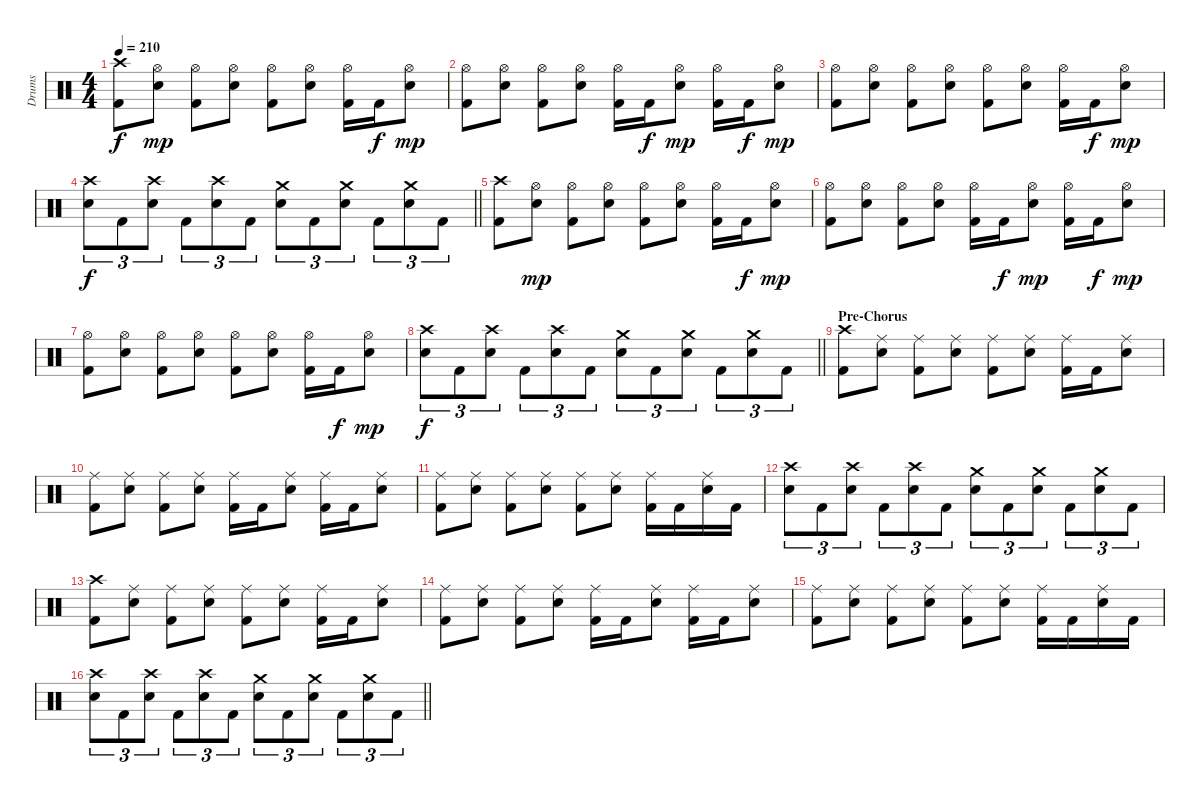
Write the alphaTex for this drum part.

\track ("Drums" "Drums") {instrument percussion}
\staff {score}
\articulation defaults
\ts (4 4)
\tempo 210
\clef neutral
\ks c
("Crash high (hit)" "Kick (hit) 2").8{dy f} ("Hi-Hat (open)" "Snare (hit) 2").8{dy mp} ("Hi-Hat (open)" "Kick (hit) 2").8 ("Hi-Hat (open)" "Snare (hit) 2").8 ("Hi-Hat (open)" "Kick (hit) 2").8 ("Hi-Hat (open)" "Snare (hit) 2").8 ("Hi-Hat (open)" "Kick (hit) 2").16 "Kick (hit) 2".16{dy f} ("Hi-Hat (open)" "Snare (hit) 2").8{dy mp} |
("Hi-Hat (open)" "Kick (hit) 2").8 ("Hi-Hat (open)" "Snare (hit) 2").8 ("Hi-Hat (open)" "Kick (hit) 2").8 ("Hi-Hat (open)" "Snare (hit) 2").8 ("Hi-Hat (open)" "Kick (hit) 2").16 "Kick (hit) 2".16{dy f} ("Hi-Hat (open)" "Snare (hit) 2").8{dy mp} ("Hi-Hat (open)" "Kick (hit) 2").16 "Kick (hit) 2".16{dy f} ("Hi-Hat (open)" "Snare (hit) 2").8{dy mp} |
("Hi-Hat (open)" "Kick (hit) 2").8 ("Hi-Hat (open)" "Snare (hit) 2").8 ("Hi-Hat (open)" "Kick (hit) 2").8 ("Hi-Hat (open)" "Snare (hit) 2").8 ("Hi-Hat (open)" "Kick (hit) 2").8 ("Hi-Hat (open)" "Snare (hit) 2").8 ("Hi-Hat (open)" "Kick (hit) 2").16 "Kick (hit) 2".16{dy f} ("Hi-Hat (open)" "Snare (hit) 2").8{dy mp} |
\barLineRight lightlight
("Crash high (hit)" "Snare (hit) 2").8{tu (3 2) dy f} "Kick (hit) 2".8{tu (3 2)} ("Crash high (hit)" "Snare (hit) 2").8{tu (3 2)} "Kick (hit) 2".8{tu (3 2)} ("Crash high (hit)" "Snare (hit) 2").8{tu (3 2)} "Kick (hit) 2".8{tu (3 2)} ("Crash medium (hit)" "Snare (hit) 2").8{tu (3 2)} "Kick (hit) 2".8{tu (3 2)} ("Crash medium (hit)" "Snare (hit) 2").8{tu (3 2)} "Kick (hit) 2".8{tu (3 2)} ("Crash medium (hit)" "Snare (hit) 2").8{tu (3 2)} "Kick (hit) 2".8{tu (3 2)} |
("Crash high (hit)" "Kick (hit) 2").8 ("Hi-Hat (open)" "Snare (hit) 2").8{dy mp} ("Hi-Hat (open)" "Kick (hit) 2").8 ("Hi-Hat (open)" "Snare (hit) 2").8 ("Hi-Hat (open)" "Kick (hit) 2").8 ("Hi-Hat (open)" "Snare (hit) 2").8 ("Hi-Hat (open)" "Kick (hit) 2").16 "Kick (hit) 2".16{dy f} ("Hi-Hat (open)" "Snare (hit) 2").8{dy mp} |
("Hi-Hat (open)" "Kick (hit) 2").8 ("Hi-Hat (open)" "Snare (hit) 2").8 ("Hi-Hat (open)" "Kick (hit) 2").8 ("Hi-Hat (open)" "Snare (hit) 2").8 ("Hi-Hat (open)" "Kick (hit) 2").16 "Kick (hit) 2".16{dy f} ("Hi-Hat (open)" "Snare (hit) 2").8{dy mp} ("Hi-Hat (open)" "Kick (hit) 2").16 "Kick (hit) 2".16{dy f} ("Hi-Hat (open)" "Snare (hit) 2").8{dy mp} |
("Hi-Hat (open)" "Kick (hit) 2").8 ("Hi-Hat (open)" "Snare (hit) 2").8 ("Hi-Hat (open)" "Kick (hit) 2").8 ("Hi-Hat (open)" "Snare (hit) 2").8 ("Hi-Hat (open)" "Kick (hit) 2").8 ("Hi-Hat (open)" "Snare (hit) 2").8 ("Hi-Hat (open)" "Kick (hit) 2").16 "Kick (hit) 2".16{dy f} ("Hi-Hat (open)" "Snare (hit) 2").8{dy mp} |
\barLineRight lightlight
("Crash high (hit)" "Snare (hit) 2").8{tu (3 2) dy f} "Kick (hit) 2".8{tu (3 2)} ("Crash high (hit)" "Snare (hit) 2").8{tu (3 2)} "Kick (hit) 2".8{tu (3 2)} ("Crash high (hit)" "Snare (hit) 2").8{tu (3 2)} "Kick (hit) 2".8{tu (3 2)} ("Crash medium (hit)" "Snare (hit) 2").8{tu (3 2)} "Kick (hit) 2".8{tu (3 2)} ("Crash medium (hit)" "Snare (hit) 2").8{tu (3 2)} "Kick (hit) 2".8{tu (3 2)} ("Crash medium (hit)" "Snare (hit) 2").8{tu (3 2)} "Kick (hit) 2".8{tu (3 2)} |
\section ("" "Pre-Chorus")
("Crash high (hit)" "Kick (hit) 2").8 ("Ride (middle)" "Snare (hit) 2").8 ("Ride (middle)" "Kick (hit) 2").8 ("Ride (middle)" "Snare (hit) 2").8 ("Ride (middle)" "Kick (hit) 2").8 ("Ride (middle)" "Snare (hit) 2").8 ("Ride (middle)" "Kick (hit) 2").16 "Kick (hit) 2".16 ("Ride (middle)" "Snare (hit) 2").8 |
("Ride (middle)" "Kick (hit) 2").8 ("Ride (middle)" "Snare (hit) 2").8 ("Ride (middle)" "Kick (hit) 2").8 ("Ride (middle)" "Snare (hit) 2").8 ("Ride (middle)" "Kick (hit) 2").16 "Kick (hit) 2".16 ("Ride (middle)" "Snare (hit) 2").8 ("Ride (middle)" "Kick (hit) 2").16 "Kick (hit) 2".16 ("Ride (middle)" "Snare (hit) 2").8 |
("Ride (middle)" "Kick (hit) 2").8 ("Ride (middle)" "Snare (hit) 2").8 ("Ride (middle)" "Kick (hit) 2").8 ("Ride (middle)" "Snare (hit) 2").8 ("Ride (middle)" "Kick (hit) 2").8 ("Ride (middle)" "Snare (hit) 2").8 ("Ride (middle)" "Kick (hit) 2").16 "Kick (hit) 2".16 ("Ride (middle)" "Snare (hit) 2").16 "Kick (hit) 2".16 |
("Crash high (hit)" "Snare (hit) 2").8{tu (3 2)} "Kick (hit) 2".8{tu (3 2)} ("Crash high (hit)" "Snare (hit) 2").8{tu (3 2)} "Kick (hit) 2".8{tu (3 2)} ("Crash high (hit)" "Snare (hit) 2").8{tu (3 2)} "Kick (hit) 2".8{tu (3 2)} ("Crash medium (hit)" "Snare (hit) 2").8{tu (3 2)} "Kick (hit) 2".8{tu (3 2)} ("Crash medium (hit)" "Snare (hit) 2").8{tu (3 2)} "Kick (hit) 2".8{tu (3 2)} ("Crash medium (hit)" "Snare (hit) 2").8{tu (3 2)} "Kick (hit) 2".8{tu (3 2)} |
("Crash high (hit)" "Kick (hit) 2").8 ("Ride (middle)" "Snare (hit) 2").8 ("Ride (middle)" "Kick (hit) 2").8 ("Ride (middle)" "Snare (hit) 2").8 ("Ride (middle)" "Kick (hit) 2").8 ("Ride (middle)" "Snare (hit) 2").8 ("Ride (middle)" "Kick (hit) 2").16 "Kick (hit) 2".16 ("Ride (middle)" "Snare (hit) 2").8 |
("Ride (middle)" "Kick (hit) 2").8 ("Ride (middle)" "Snare (hit) 2").8 ("Ride (middle)" "Kick (hit) 2").8 ("Ride (middle)" "Snare (hit) 2").8 ("Ride (middle)" "Kick (hit) 2").16 "Kick (hit) 2".16 ("Ride (middle)" "Snare (hit) 2").8 ("Ride (middle)" "Kick (hit) 2").16 "Kick (hit) 2".16 ("Ride (middle)" "Snare (hit) 2").8 |
("Ride (middle)" "Kick (hit) 2").8 ("Ride (middle)" "Snare (hit) 2").8 ("Ride (middle)" "Kick (hit) 2").8 ("Ride (middle)" "Snare (hit) 2").8 ("Ride (middle)" "Kick (hit) 2").8 ("Ride (middle)" "Snare (hit) 2").8 ("Ride (middle)" "Kick (hit) 2").16 "Kick (hit) 2".16 ("Ride (middle)" "Snare (hit) 2").16 "Kick (hit) 2".16 |
\barLineRight lightlight
("Crash high (hit)" "Snare (hit) 2").8{tu (3 2)} "Kick (hit) 2".8{tu (3 2)} ("Crash high (hit)" "Snare (hit) 2").8{tu (3 2)} "Kick (hit) 2".8{tu (3 2)} ("Crash high (hit)" "Snare (hit) 2").8{tu (3 2)} "Kick (hit) 2".8{tu (3 2)} ("Crash medium (hit)" "Snare (hit) 2").8{tu (3 2)} "Kick (hit) 2".8{tu (3 2)} ("Crash medium (hit)" "Snare (hit) 2").8{tu (3 2)} "Kick (hit) 2".8{tu (3 2)} ("Crash medium (hit)" "Snare (hit) 2").8{tu (3 2)} "Kick (hit) 2".8{tu (3 2)}
